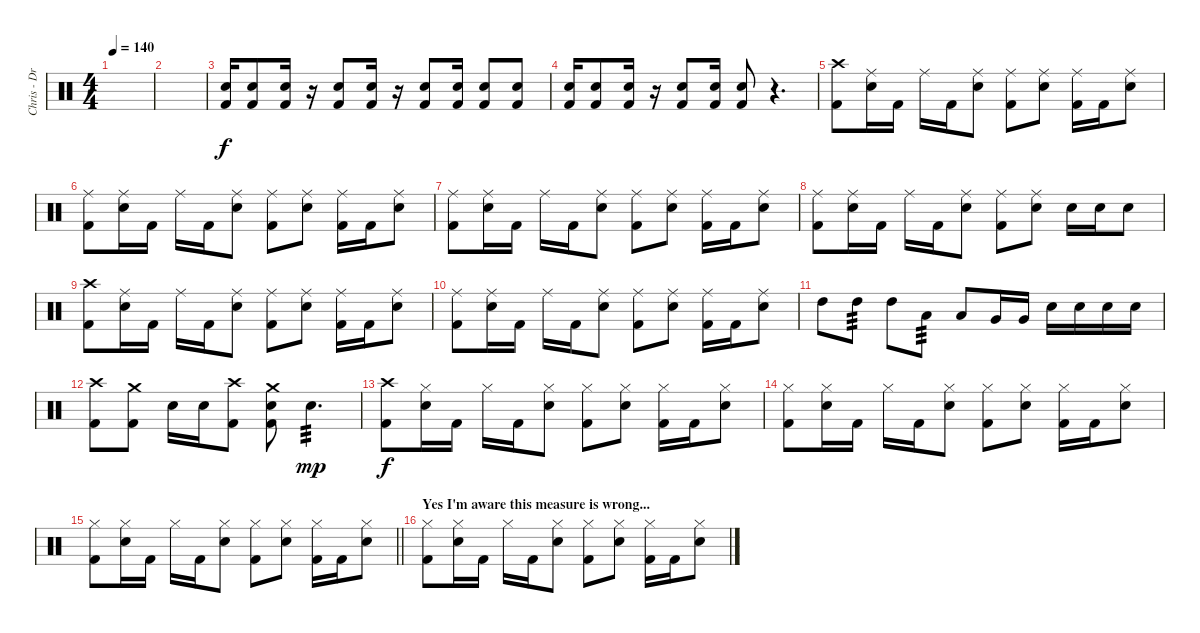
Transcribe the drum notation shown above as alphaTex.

\track ("Chris - Drums" "Chris - Dr") {instrument percussion}
\staff {score}
\articulation defaults
\ts (4 4)
\tempo 140
\clef neutral
\ks c
|
|
("Electric Snare (hit)" "Kick (hit) 2").16 ("Electric Snare (hit)" "Kick (hit) 2").8 ("Electric Snare (hit)" "Kick (hit) 2").16 r.16 ("Electric Snare (hit)" "Kick (hit) 2").8 ("Electric Snare (hit)" "Kick (hit) 2").16 r.16 ("Electric Snare (hit)" "Kick (hit) 2").8 ("Electric Snare (hit)" "Kick (hit) 2").16 ("Electric Snare (hit)" "Kick (hit) 2").8 ("Electric Snare (hit)" "Kick (hit) 2").8 |
("Electric Snare (hit)" "Kick (hit) 2").16 ("Electric Snare (hit)" "Kick (hit) 2").8 ("Electric Snare (hit)" "Kick (hit) 2").16 r.16 ("Electric Snare (hit)" "Kick (hit) 2").8 ("Electric Snare (hit)" "Kick (hit) 2").16 ("Electric Snare (hit)" "Kick (hit) 2").8 r.4{d} |
("Crash high (hit)" "Kick (hit) 2").8 ("Ride (middle)" "Electric Snare (hit)").16 "Kick (hit) 2".16 "Ride (middle)".16 "Kick (hit) 2".16 ("Ride (middle)" "Electric Snare (hit)").8 ("Ride (middle)" "Kick (hit) 2").8 ("Ride (middle)" "Electric Snare (hit)").8 ("Ride (middle)" "Kick (hit) 2").16 "Kick (hit) 2".16 ("Ride (middle)" "Electric Snare (hit)").8 |
("Ride (middle)" "Kick (hit) 2").8 ("Ride (middle)" "Electric Snare (hit)").16 "Kick (hit) 2".16 "Ride (middle)".16 "Kick (hit) 2".16 ("Ride (middle)" "Electric Snare (hit)").8 ("Ride (middle)" "Kick (hit) 2").8 ("Ride (middle)" "Electric Snare (hit)").8 ("Ride (middle)" "Kick (hit) 2").16 "Kick (hit) 2".16 ("Ride (middle)" "Electric Snare (hit)").8 |
("Ride (middle)" "Kick (hit) 2").8 ("Ride (middle)" "Electric Snare (hit)").16 "Kick (hit) 2".16 "Ride (middle)".16 "Kick (hit) 2".16 ("Ride (middle)" "Electric Snare (hit)").8 ("Ride (middle)" "Kick (hit) 2").8 ("Ride (middle)" "Electric Snare (hit)").8 ("Ride (middle)" "Kick (hit) 2").16 "Kick (hit) 2".16 ("Ride (middle)" "Electric Snare (hit)").8 |
("Ride (middle)" "Kick (hit) 2").8 ("Ride (middle)" "Electric Snare (hit)").16 "Kick (hit) 2".16 "Ride (middle)".16 "Kick (hit) 2".16 ("Ride (middle)" "Electric Snare (hit)").8 ("Ride (middle)" "Kick (hit) 2").8 ("Ride (middle)" "Electric Snare (hit)").8 "Electric Snare (hit)".16 "Electric Snare (hit)".16 "Electric Snare (hit)".8 |
("Crash high (hit)" "Kick (hit) 2").8 ("Ride (middle)" "Electric Snare (hit)").16 "Kick (hit) 2".16 "Ride (middle)".16 "Kick (hit) 2".16 ("Ride (middle)" "Electric Snare (hit)").8 ("Ride (middle)" "Kick (hit) 2").8 ("Ride (middle)" "Electric Snare (hit)").8 ("Ride (middle)" "Kick (hit) 2").16 "Kick (hit) 2".16 ("Ride (middle)" "Electric Snare (hit)").8 |
("Ride (middle)" "Kick (hit) 2").8 ("Ride (middle)" "Electric Snare (hit)").16 "Kick (hit) 2".16 "Ride (middle)".16 "Kick (hit) 2".16 ("Ride (middle)" "Electric Snare (hit)").8 ("Ride (middle)" "Kick (hit) 2").8 ("Ride (middle)" "Electric Snare (hit)").8 ("Ride (middle)" "Kick (hit) 2").16 "Kick (hit) 2".16 ("Ride (middle)" "Electric Snare (hit)").8 |
"High Tom (hit)".8 "High Tom (hit)".8{tp 3} "High Tom (hit)".8 "Low Tom (hit)".8{tp 3} "Low Tom (hit)".8 "Very Low Tom (hit)".16 "Very Low Tom (hit)".16 "Electric Snare (hit)".16 "Electric Snare (hit)".16 "Electric Snare (hit)".16 "Electric Snare (hit)".16 |
("Crash high (hit)" "Kick (hit) 2").8 ("Crash medium (hit)" "Kick (hit) 2").8 "Electric Snare (hit)".16 "Electric Snare (hit)".16 ("Crash high (hit)" "Kick (hit) 2").8 ("Crash medium (hit)" "Electric Snare (hit)" "Kick (hit) 2").8 "Electric Snare (hit)".4{d tp 3 dy mp} |
("Crash high (hit)" "Kick (hit) 2").8{dy f} ("Hi-Hat (closed)" "Electric Snare (hit)").16 "Kick (hit) 2".16 "Hi-Hat (closed)".16 "Kick (hit) 2".16 ("Hi-Hat (closed)" "Electric Snare (hit)").8 ("Hi-Hat (closed)" "Kick (hit) 2").8 ("Hi-Hat (closed)" "Electric Snare (hit)").8 ("Hi-Hat (closed)" "Kick (hit) 2").16 "Kick (hit) 2".16 ("Hi-Hat (closed)" "Electric Snare (hit)").8 |
("Hi-Hat (closed)" "Kick (hit) 2").8 ("Hi-Hat (closed)" "Electric Snare (hit)").16 "Kick (hit) 2".16 "Hi-Hat (closed)".16 "Kick (hit) 2".16 ("Hi-Hat (closed)" "Electric Snare (hit)").8 ("Hi-Hat (closed)" "Kick (hit) 2").8 ("Hi-Hat (closed)" "Electric Snare (hit)").8 ("Hi-Hat (closed)" "Kick (hit) 2").16 "Kick (hit) 2".16 ("Hi-Hat (closed)" "Electric Snare (hit)").8 |
\barLineRight lightlight
("Hi-Hat (closed)" "Kick (hit) 2").8 ("Hi-Hat (closed)" "Electric Snare (hit)").16 "Kick (hit) 2".16 "Hi-Hat (closed)".16 "Kick (hit) 2".16 ("Hi-Hat (closed)" "Electric Snare (hit)").8 ("Hi-Hat (closed)" "Kick (hit) 2").8 ("Hi-Hat (closed)" "Electric Snare (hit)").8 ("Hi-Hat (closed)" "Kick (hit) 2").16 "Kick (hit) 2".16 ("Hi-Hat (closed)" "Electric Snare (hit)").8 |
\section ("" "Yes I'm aware this measure is wrong...")
("Hi-Hat (closed)" "Kick (hit) 2").8 ("Hi-Hat (closed)" "Electric Snare (hit)").16 "Kick (hit) 2".16 "Hi-Hat (closed)".16 "Kick (hit) 2".16 ("Hi-Hat (closed)" "Electric Snare (hit)").8 ("Hi-Hat (closed)" "Kick (hit) 2").8 ("Hi-Hat (closed)" "Electric Snare (hit)").8 ("Hi-Hat (closed)" "Kick (hit) 2").16 "Kick (hit) 2".16 ("Hi-Hat (closed)" "Electric Snare (hit)").8
